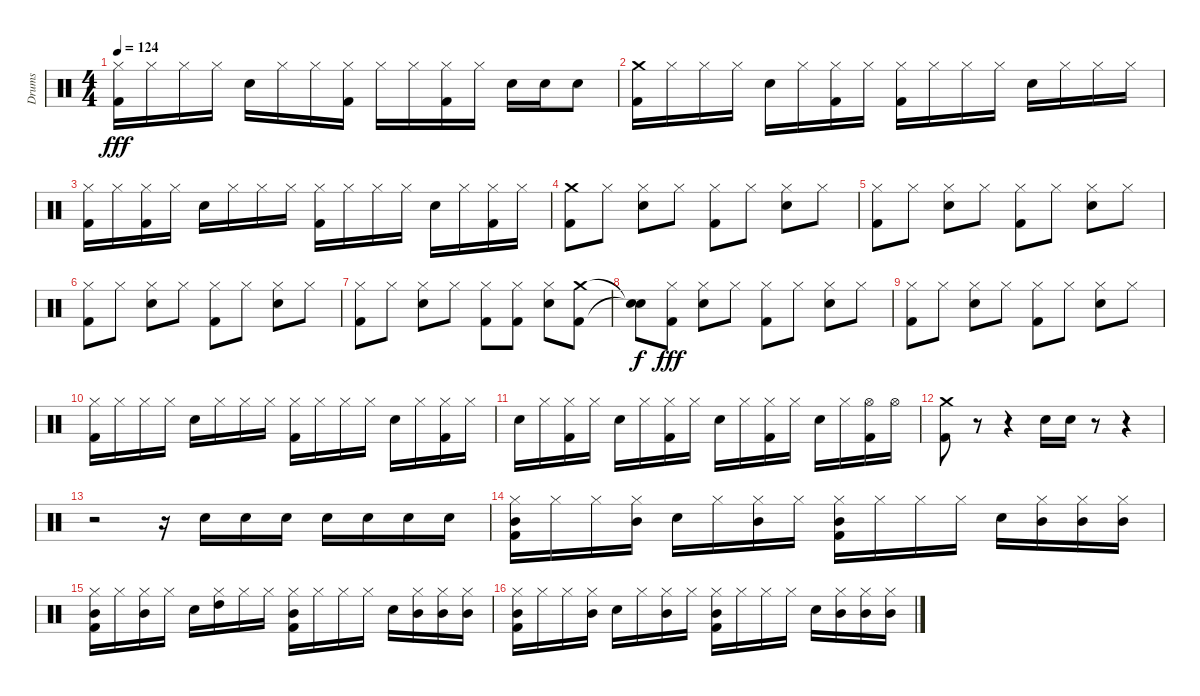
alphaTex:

\track ("Drums" "Drums") {instrument percussion}
\staff {score}
\articulation defaults
\ts (4 4)
\tempo 124
\clef neutral
\ks c
("Hi-Hat (closed)" "Kick (hit) 2").16{dy fff} "Hi-Hat (closed)".16 "Hi-Hat (closed)".16 "Hi-Hat (closed)".16 "Snare (hit) 2".16 "Hi-Hat (closed)".16 "Hi-Hat (closed)".16 ("Hi-Hat (closed)" "Kick (hit) 2").16 "Hi-Hat (closed)".16 "Hi-Hat (closed)".16 ("Hi-Hat (closed)" "Kick (hit) 2").16 "Hi-Hat (closed)".16 "Snare (hit) 2".16 "Snare (hit) 2".16 "Snare (hit) 2".8 |
("Crash medium (hit)" "Kick (hit) 2").16 "Hi-Hat (closed)".16 "Hi-Hat (closed)".16 "Hi-Hat (closed)".16 "Snare (hit) 2".16 "Hi-Hat (closed)".16 ("Hi-Hat (closed)" "Kick (hit) 2").16 "Hi-Hat (closed)".16 ("Hi-Hat (closed)" "Kick (hit) 2").16 "Hi-Hat (closed)".16 "Hi-Hat (closed)".16 "Hi-Hat (closed)".16 "Snare (hit) 2".16 "Hi-Hat (closed)".16 "Hi-Hat (closed)".16 "Hi-Hat (closed)".16 |
("Hi-Hat (closed)" "Kick (hit) 2").16 "Hi-Hat (closed)".16 ("Hi-Hat (closed)" "Kick (hit) 2").16 "Hi-Hat (closed)".16 "Snare (hit) 2".16 "Hi-Hat (closed)".16 "Hi-Hat (closed)".16 "Hi-Hat (closed)".16 ("Hi-Hat (closed)" "Kick (hit) 2").16 "Hi-Hat (closed)".16 "Hi-Hat (closed)".16 "Hi-Hat (closed)".16 "Snare (hit) 2".16 "Hi-Hat (closed)".16 ("Hi-Hat (closed)" "Kick (hit) 2").16 "Hi-Hat (closed)".16 |
("Crash medium (hit)" "Kick (hit) 2").8 "Hi-Hat (closed)".8 ("Hi-Hat (closed)" "Snare (hit) 2").8 "Hi-Hat (closed)".8 ("Hi-Hat (closed)" "Kick (hit) 2").8 "Hi-Hat (closed)".8 ("Hi-Hat (closed)" "Snare (hit) 2").8 "Hi-Hat (closed)".8 |
("Hi-Hat (closed)" "Kick (hit) 2").8 "Hi-Hat (closed)".8 ("Hi-Hat (closed)" "Snare (hit) 2").8 "Hi-Hat (closed)".8 ("Hi-Hat (closed)" "Kick (hit) 2").8 "Hi-Hat (closed)".8 ("Hi-Hat (closed)" "Snare (hit) 2").8 "Hi-Hat (closed)".8 |
("Hi-Hat (closed)" "Kick (hit) 2").8 "Hi-Hat (closed)".8 ("Hi-Hat (closed)" "Snare (hit) 2").8 "Hi-Hat (closed)".8 ("Hi-Hat (closed)" "Kick (hit) 2").8 "Hi-Hat (closed)".8 ("Hi-Hat (closed)" "Snare (hit) 2").8 "Hi-Hat (closed)".8 |
("Hi-Hat (closed)" "Kick (hit) 2").8 "Hi-Hat (closed)".8 ("Hi-Hat (closed)" "Snare (hit) 2").8 "Hi-Hat (closed)".8 ("Hi-Hat (closed)" "Kick (hit) 2").8 ("Hi-Hat (closed)" "Kick (hit) 2").8 ("Hi-Hat (closed)" "Snare (hit) 2").8 ("Crash medium (hit)" "Kick (hit) 2").8 |
("Snare (hit)"{t} "Snare (hit)"{t}).8{dy f} ("Hi-Hat (closed)" "Kick (hit) 2").8{dy fff} ("Hi-Hat (closed)" "Snare (hit) 2").8 "Hi-Hat (closed)".8 ("Hi-Hat (closed)" "Kick (hit) 2").8 "Hi-Hat (closed)".8 ("Hi-Hat (closed)" "Snare (hit) 2").8 "Hi-Hat (closed)".8 |
("Hi-Hat (closed)" "Kick (hit) 2").8 "Hi-Hat (closed)".8 ("Hi-Hat (closed)" "Snare (hit) 2").8 "Hi-Hat (closed)".8 ("Hi-Hat (closed)" "Kick (hit) 2").8 "Hi-Hat (closed)".8 ("Hi-Hat (closed)" "Snare (hit) 2").8 "Hi-Hat (closed)".8 |
("Hi-Hat (closed)" "Kick (hit) 2").16 "Hi-Hat (closed)".16 "Hi-Hat (closed)".16 "Hi-Hat (closed)".16 "Snare (hit) 2".16 "Hi-Hat (closed)".16 "Hi-Hat (closed)".16 "Hi-Hat (closed)".16 ("Hi-Hat (closed)" "Kick (hit) 2").16 "Hi-Hat (closed)".16 "Hi-Hat (closed)".16 "Hi-Hat (closed)".16 "Snare (hit) 2".16 "Hi-Hat (closed)".16 ("Hi-Hat (closed)" "Kick (hit) 2").16 "Hi-Hat (closed)".16 |
"Snare (hit) 2".16 "Hi-Hat (closed)".16 ("Hi-Hat (closed)" "Kick (hit) 2").16 "Hi-Hat (closed)".16 "Snare (hit) 2".16 "Hi-Hat (closed)".16 ("Hi-Hat (closed)" "Kick (hit) 2").16 "Hi-Hat (closed)".16 "Snare (hit) 2".16 "Hi-Hat (closed)".16 ("Hi-Hat (closed)" "Kick (hit) 2").16 "Hi-Hat (closed)".16 "Snare (hit) 2".16 "Hi-Hat (closed)".16 ("Hi-Hat (open)" "Kick (hit) 2").16 "Hi-Hat (open)".16 |
("Crash medium (hit)" "Kick (hit) 2").8 r.8 r.4 "Snare (hit) 2".16 "Snare (hit) 2".16 r.8 r.4 |
r.2 r.16 "Snare (hit) 2".16 "Snare (hit) 2".16 "Snare (hit) 2".16 "Snare (hit) 2".16 "Snare (hit) 2".16 "Snare (hit) 2".16 "Snare (hit) 2".16 |
("Hi-Hat (closed)" "Mid Tom (hit)" "Kick (hit) 2").16 "Hi-Hat (closed)".16 "Hi-Hat (closed)".16 ("Hi-Hat (closed)" "Mid Tom (hit)").16 "Snare (hit) 2".16 "Hi-Hat (closed)".16 ("Hi-Hat (closed)" "Mid Tom (hit)").16 "Hi-Hat (closed)".16 ("Hi-Hat (closed)" "Mid Tom (hit)" "Kick (hit) 2").16 "Hi-Hat (closed)".16 "Hi-Hat (closed)".16 "Hi-Hat (closed)".16 "Snare (hit) 2".16 ("Hi-Hat (closed)" "Mid Tom (hit)").16 ("Hi-Hat (closed)" "Mid Tom (hit)").16 ("Hi-Hat (closed)" "Mid Tom (hit)").16 |
("Hi-Hat (closed)" "Mid Tom (hit)" "Kick (hit) 2").16 "Hi-Hat (closed)".16 ("Hi-Hat (closed)" "Mid Tom (hit)").16 "Hi-Hat (closed)".16 "Snare (hit) 2".16 ("Hi-Hat (closed)" "High Tom (hit)").16 "Hi-Hat (closed)".16 "Hi-Hat (closed)".16 ("Hi-Hat (closed)" "Mid Tom (hit)" "Kick (hit) 2").16 "Hi-Hat (closed)".16 "Hi-Hat (closed)".16 "Hi-Hat (closed)".16 "Snare (hit) 2".16 ("Hi-Hat (closed)" "Mid Tom (hit)").16 ("Hi-Hat (closed)" "Mid Tom (hit)").16 ("Hi-Hat (closed)" "Mid Tom (hit)").16 |
("Hi-Hat (closed)" "Mid Tom (hit)" "Kick (hit) 2").16 "Hi-Hat (closed)".16 "Hi-Hat (closed)".16 ("Hi-Hat (closed)" "Mid Tom (hit)").16 "Snare (hit) 2".16 "Hi-Hat (closed)".16 ("Hi-Hat (closed)" "Mid Tom (hit)").16 "Hi-Hat (closed)".16 ("Hi-Hat (closed)" "Mid Tom (hit)" "Kick (hit) 2").16 "Hi-Hat (closed)".16 "Hi-Hat (closed)".16 "Hi-Hat (closed)".16 "Snare (hit) 2".16 ("Hi-Hat (closed)" "Mid Tom (hit)").16 ("Hi-Hat (closed)" "Mid Tom (hit)").16 ("Hi-Hat (closed)" "Mid Tom (hit)").16
